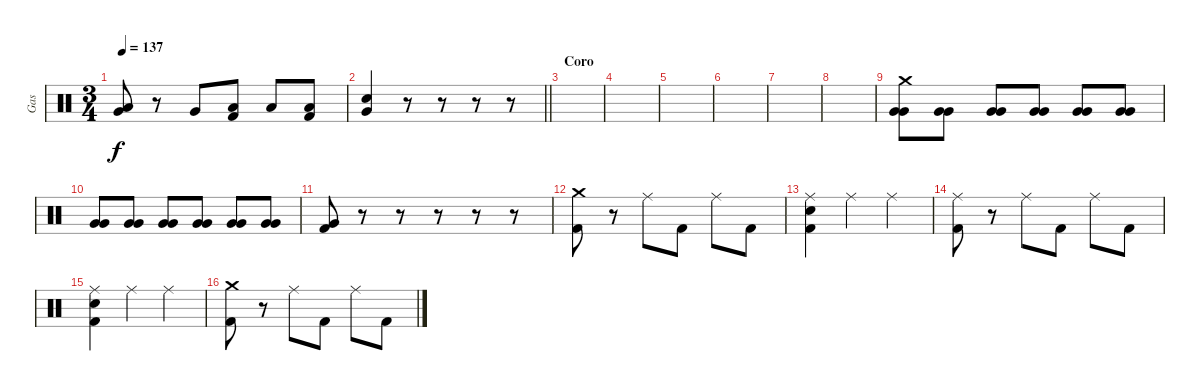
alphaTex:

\track ("Gas" "Gas") {instrument percussion}
\staff {score}
\articulation defaults
\ts (3 4)
\tempo 137
\clef neutral
\ks c
("Very Low Tom (hit)" "Low Tom (hit)").8{dy f} r.8 "Very Low Tom (hit)".8 ("Low Tom (hit)" "Kick (hit) 2").8 "Low Tom (hit)".8 ("Low Tom (hit)" "Kick (hit) 2").8 |
\barLineRight lightlight
("Very Low Tom (hit)" "Snare (hit) 2").4 r.8 r.8 r.8 r.8 |
\section ("" "Coro")
|
|
|
|
|
|
("Very Low Tom (hit)" "Very Low Tom (hit)" "Crash medium (hit)").8 ("Very Low Tom (hit)" "Very Low Tom (hit)").8 ("Very Low Tom (hit)" "Very Low Tom (hit)").8 ("Very Low Tom (hit)" "Very Low Tom (hit)").8 ("Very Low Tom (hit)" "Very Low Tom (hit)").8 ("Very Low Tom (hit)" "Very Low Tom (hit)").8 |
("Very Low Tom (hit)" "Very Low Tom (hit)").8 ("Very Low Tom (hit)" "Very Low Tom (hit)").8 ("Very Low Tom (hit)" "Very Low Tom (hit)").8 ("Very Low Tom (hit)" "Very Low Tom (hit)").8 ("Very Low Tom (hit)" "Very Low Tom (hit)").8 ("Very Low Tom (hit)" "Very Low Tom (hit)").8 |
("Kick (hit) 2" "Very Low Tom (hit)").8 r.8 r.8 r.8 r.8 r.8 |
("Crash medium (hit)" "Kick (hit) 2").8 r.8 "Ride (middle)".8 "Kick (hit) 2".8 "Ride (middle)".8 "Kick (hit) 2".8 |
("Ride (middle)" "Snare (hit) 2" "Kick (hit) 2").4 "Ride (middle)".4 "Ride (middle)".4 |
("Ride (middle)" "Kick (hit) 2").8 r.8 "Ride (middle)".8 "Kick (hit) 2".8 "Ride (middle)".8 "Kick (hit) 2".8 |
("Ride (middle)" "Snare (hit) 2" "Kick (hit) 2").4 "Ride (middle)".4 "Ride (middle)".4 |
("Crash medium (hit)" "Kick (hit) 2").8 r.8 "Ride (middle)".8 "Kick (hit) 2".8 "Ride (middle)".8 "Kick (hit) 2".8
